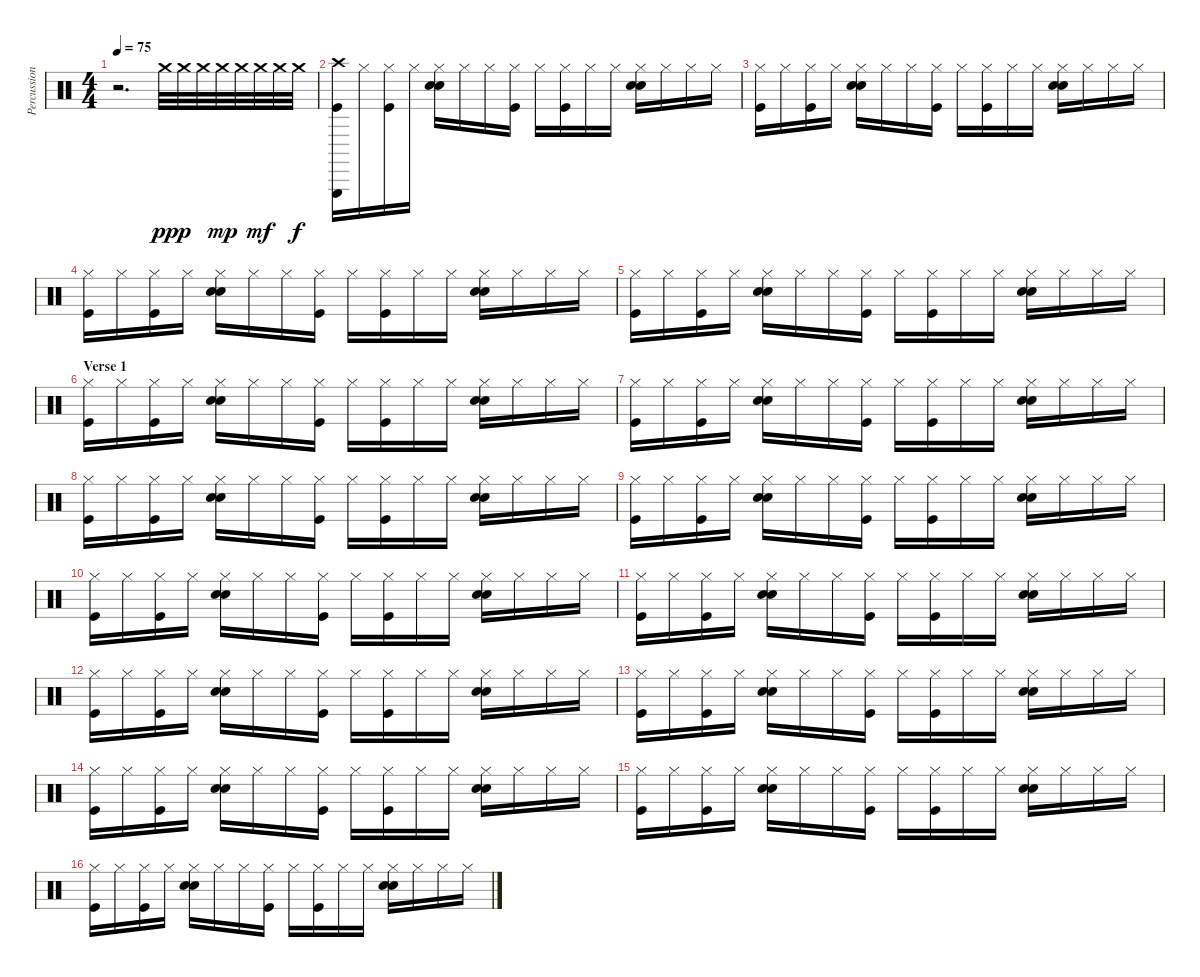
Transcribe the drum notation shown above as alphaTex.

\track ("Percussion" "Percussion") {instrument percussion}
\staff {score}
\articulation defaults
\ts (4 4)
\tempo 75
\clef neutral
\ks c
r.2{d dy pp} "Crash medium (hit)".32 "Crash medium (hit)".32{dy p} "Crash medium (hit)".32 "Crash medium (hit)".32{dy mp} "Crash medium (hit)".32 "Crash medium (hit)".32{dy mf} "Crash medium (hit)".32 "Crash medium (hit)".32{dy f} |
("Kick (hit)" "Triangle (hit)" "Crash high (hit)").16 "Hi-Hat (closed)".16 ("Kick (hit)" "Hi-Hat (closed)").16 "Hi-Hat (closed)".16 ("Snare (hit) 2" "Electric Snare (hit)" "Hi-Hat (closed)").16 "Hi-Hat (closed)".16 "Hi-Hat (closed)".16 ("Kick (hit)" "Hi-Hat (closed)").16 "Hi-Hat (closed)".16 ("Kick (hit)" "Hi-Hat (closed)").16 "Hi-Hat (closed)".16 "Hi-Hat (closed)".16 ("Snare (hit) 2" "Electric Snare (hit)" "Hi-Hat (closed)").16 "Hi-Hat (closed)".16 "Hi-Hat (closed)".16 "Hi-Hat (closed)".16 |
("Kick (hit)" "Hi-Hat (closed)").16 "Hi-Hat (closed)".16 ("Kick (hit)" "Hi-Hat (closed)").16 "Hi-Hat (closed)".16 ("Snare (hit) 2" "Electric Snare (hit)" "Hi-Hat (closed)").16 "Hi-Hat (closed)".16 "Hi-Hat (closed)".16 ("Kick (hit)" "Hi-Hat (closed)").16 "Hi-Hat (closed)".16 ("Kick (hit)" "Hi-Hat (closed)").16 "Hi-Hat (closed)".16 "Hi-Hat (closed)".16 ("Snare (hit) 2" "Electric Snare (hit)" "Hi-Hat (closed)").16 "Hi-Hat (closed)".16 "Hi-Hat (closed)".16 "Hi-Hat (closed)".16 |
("Kick (hit)" "Hi-Hat (closed)").16 "Hi-Hat (closed)".16 ("Kick (hit)" "Hi-Hat (closed)").16 "Hi-Hat (closed)".16 ("Snare (hit) 2" "Electric Snare (hit)" "Hi-Hat (closed)").16 "Hi-Hat (closed)".16 "Hi-Hat (closed)".16 ("Kick (hit)" "Hi-Hat (closed)").16 "Hi-Hat (closed)".16 ("Kick (hit)" "Hi-Hat (closed)").16 "Hi-Hat (closed)".16 "Hi-Hat (closed)".16 ("Snare (hit) 2" "Electric Snare (hit)" "Hi-Hat (closed)").16 "Hi-Hat (closed)".16 "Hi-Hat (closed)".16 "Hi-Hat (closed)".16 |
("Kick (hit)" "Hi-Hat (closed)").16 "Hi-Hat (closed)".16 ("Kick (hit)" "Hi-Hat (closed)").16 "Hi-Hat (closed)".16 ("Snare (hit) 2" "Electric Snare (hit)" "Hi-Hat (closed)").16 "Hi-Hat (closed)".16 "Hi-Hat (closed)".16 ("Kick (hit)" "Hi-Hat (closed)").16 "Hi-Hat (closed)".16 ("Kick (hit)" "Hi-Hat (closed)").16 "Hi-Hat (closed)".16 "Hi-Hat (closed)".16 ("Snare (hit) 2" "Electric Snare (hit)" "Hi-Hat (closed)").16 "Hi-Hat (closed)".16 "Hi-Hat (closed)".16 "Hi-Hat (closed)".16 |
\section ("" "Verse 1")
("Kick (hit)" "Hi-Hat (closed)").16 "Hi-Hat (closed)".16 ("Kick (hit)" "Hi-Hat (closed)").16 "Hi-Hat (closed)".16 ("Snare (hit) 2" "Electric Snare (hit)" "Hi-Hat (closed)").16 "Hi-Hat (closed)".16 "Hi-Hat (closed)".16 ("Kick (hit)" "Hi-Hat (closed)").16 "Hi-Hat (closed)".16 ("Kick (hit)" "Hi-Hat (closed)").16 "Hi-Hat (closed)".16 "Hi-Hat (closed)".16 ("Snare (hit) 2" "Electric Snare (hit)" "Hi-Hat (closed)").16 "Hi-Hat (closed)".16 "Hi-Hat (closed)".16 "Hi-Hat (closed)".16 |
("Kick (hit)" "Hi-Hat (closed)").16 "Hi-Hat (closed)".16 ("Kick (hit)" "Hi-Hat (closed)").16 "Hi-Hat (closed)".16 ("Snare (hit) 2" "Electric Snare (hit)" "Hi-Hat (closed)").16 "Hi-Hat (closed)".16 "Hi-Hat (closed)".16 ("Kick (hit)" "Hi-Hat (closed)").16 "Hi-Hat (closed)".16 ("Kick (hit)" "Hi-Hat (closed)").16 "Hi-Hat (closed)".16 "Hi-Hat (closed)".16 ("Snare (hit) 2" "Electric Snare (hit)" "Hi-Hat (closed)").16 "Hi-Hat (closed)".16 "Hi-Hat (closed)".16 "Hi-Hat (closed)".16 |
("Kick (hit)" "Hi-Hat (closed)").16 "Hi-Hat (closed)".16 ("Kick (hit)" "Hi-Hat (closed)").16 "Hi-Hat (closed)".16 ("Snare (hit) 2" "Electric Snare (hit)" "Hi-Hat (closed)").16 "Hi-Hat (closed)".16 "Hi-Hat (closed)".16 ("Kick (hit)" "Hi-Hat (closed)").16 "Hi-Hat (closed)".16 ("Kick (hit)" "Hi-Hat (closed)").16 "Hi-Hat (closed)".16 "Hi-Hat (closed)".16 ("Snare (hit) 2" "Electric Snare (hit)" "Hi-Hat (closed)").16 "Hi-Hat (closed)".16 "Hi-Hat (closed)".16 "Hi-Hat (closed)".16 |
("Kick (hit)" "Hi-Hat (closed)").16 "Hi-Hat (closed)".16 ("Kick (hit)" "Hi-Hat (closed)").16 "Hi-Hat (closed)".16 ("Snare (hit) 2" "Electric Snare (hit)" "Hi-Hat (closed)").16 "Hi-Hat (closed)".16 "Hi-Hat (closed)".16 ("Kick (hit)" "Hi-Hat (closed)").16 "Hi-Hat (closed)".16 ("Kick (hit)" "Hi-Hat (closed)").16 "Hi-Hat (closed)".16 "Hi-Hat (closed)".16 ("Snare (hit) 2" "Electric Snare (hit)" "Hi-Hat (closed)").16 "Hi-Hat (closed)".16 "Hi-Hat (closed)".16 "Hi-Hat (closed)".16 |
("Kick (hit)" "Hi-Hat (closed)").16 "Hi-Hat (closed)".16 ("Kick (hit)" "Hi-Hat (closed)").16 "Hi-Hat (closed)".16 ("Snare (hit) 2" "Electric Snare (hit)" "Hi-Hat (closed)").16 "Hi-Hat (closed)".16 "Hi-Hat (closed)".16 ("Kick (hit)" "Hi-Hat (closed)").16 "Hi-Hat (closed)".16 ("Kick (hit)" "Hi-Hat (closed)").16 "Hi-Hat (closed)".16 "Hi-Hat (closed)".16 ("Snare (hit) 2" "Electric Snare (hit)" "Hi-Hat (closed)").16 "Hi-Hat (closed)".16 "Hi-Hat (closed)".16 "Hi-Hat (closed)".16 |
("Kick (hit)" "Hi-Hat (closed)").16 "Hi-Hat (closed)".16 ("Kick (hit)" "Hi-Hat (closed)").16 "Hi-Hat (closed)".16 ("Snare (hit) 2" "Electric Snare (hit)" "Hi-Hat (closed)").16 "Hi-Hat (closed)".16 "Hi-Hat (closed)".16 ("Kick (hit)" "Hi-Hat (closed)").16 "Hi-Hat (closed)".16 ("Kick (hit)" "Hi-Hat (closed)").16 "Hi-Hat (closed)".16 "Hi-Hat (closed)".16 ("Snare (hit) 2" "Electric Snare (hit)" "Hi-Hat (closed)").16 "Hi-Hat (closed)".16 "Hi-Hat (closed)".16 "Hi-Hat (closed)".16 |
("Kick (hit)" "Hi-Hat (closed)").16 "Hi-Hat (closed)".16 ("Kick (hit)" "Hi-Hat (closed)").16 "Hi-Hat (closed)".16 ("Snare (hit) 2" "Electric Snare (hit)" "Hi-Hat (closed)").16 "Hi-Hat (closed)".16 "Hi-Hat (closed)".16 ("Kick (hit)" "Hi-Hat (closed)").16 "Hi-Hat (closed)".16 ("Kick (hit)" "Hi-Hat (closed)").16 "Hi-Hat (closed)".16 "Hi-Hat (closed)".16 ("Snare (hit) 2" "Electric Snare (hit)" "Hi-Hat (closed)").16 "Hi-Hat (closed)".16 "Hi-Hat (closed)".16 "Hi-Hat (closed)".16 |
("Kick (hit)" "Hi-Hat (closed)").16 "Hi-Hat (closed)".16 ("Kick (hit)" "Hi-Hat (closed)").16 "Hi-Hat (closed)".16 ("Snare (hit) 2" "Electric Snare (hit)" "Hi-Hat (closed)").16 "Hi-Hat (closed)".16 "Hi-Hat (closed)".16 ("Kick (hit)" "Hi-Hat (closed)").16 "Hi-Hat (closed)".16 ("Kick (hit)" "Hi-Hat (closed)").16 "Hi-Hat (closed)".16 "Hi-Hat (closed)".16 ("Snare (hit) 2" "Electric Snare (hit)" "Hi-Hat (closed)").16 "Hi-Hat (closed)".16 "Hi-Hat (closed)".16 "Hi-Hat (closed)".16 |
("Kick (hit)" "Hi-Hat (closed)").16 "Hi-Hat (closed)".16 ("Kick (hit)" "Hi-Hat (closed)").16 "Hi-Hat (closed)".16 ("Snare (hit) 2" "Electric Snare (hit)" "Hi-Hat (closed)").16 "Hi-Hat (closed)".16 "Hi-Hat (closed)".16 ("Kick (hit)" "Hi-Hat (closed)").16 "Hi-Hat (closed)".16 ("Kick (hit)" "Hi-Hat (closed)").16 "Hi-Hat (closed)".16 "Hi-Hat (closed)".16 ("Snare (hit) 2" "Electric Snare (hit)" "Hi-Hat (closed)").16 "Hi-Hat (closed)".16 "Hi-Hat (closed)".16 "Hi-Hat (closed)".16 |
("Kick (hit)" "Hi-Hat (closed)").16 "Hi-Hat (closed)".16 ("Kick (hit)" "Hi-Hat (closed)").16 "Hi-Hat (closed)".16 ("Snare (hit) 2" "Electric Snare (hit)" "Hi-Hat (closed)").16 "Hi-Hat (closed)".16 "Hi-Hat (closed)".16 ("Kick (hit)" "Hi-Hat (closed)").16 "Hi-Hat (closed)".16 ("Kick (hit)" "Hi-Hat (closed)").16 "Hi-Hat (closed)".16 "Hi-Hat (closed)".16 ("Snare (hit) 2" "Electric Snare (hit)" "Hi-Hat (closed)").16 "Hi-Hat (closed)".16 "Hi-Hat (closed)".16 "Hi-Hat (closed)".16 |
("Kick (hit)" "Hi-Hat (closed)").16 "Hi-Hat (closed)".16 ("Kick (hit)" "Hi-Hat (closed)").16 "Hi-Hat (closed)".16 ("Snare (hit) 2" "Electric Snare (hit)" "Hi-Hat (closed)").16 "Hi-Hat (closed)".16 "Hi-Hat (closed)".16 ("Kick (hit)" "Hi-Hat (closed)").16 "Hi-Hat (closed)".16 ("Kick (hit)" "Hi-Hat (closed)").16 "Hi-Hat (closed)".16 "Hi-Hat (closed)".16 ("Snare (hit) 2" "Electric Snare (hit)" "Hi-Hat (closed)").16 "Hi-Hat (closed)".16 "Hi-Hat (closed)".16 "Hi-Hat (closed)".16
